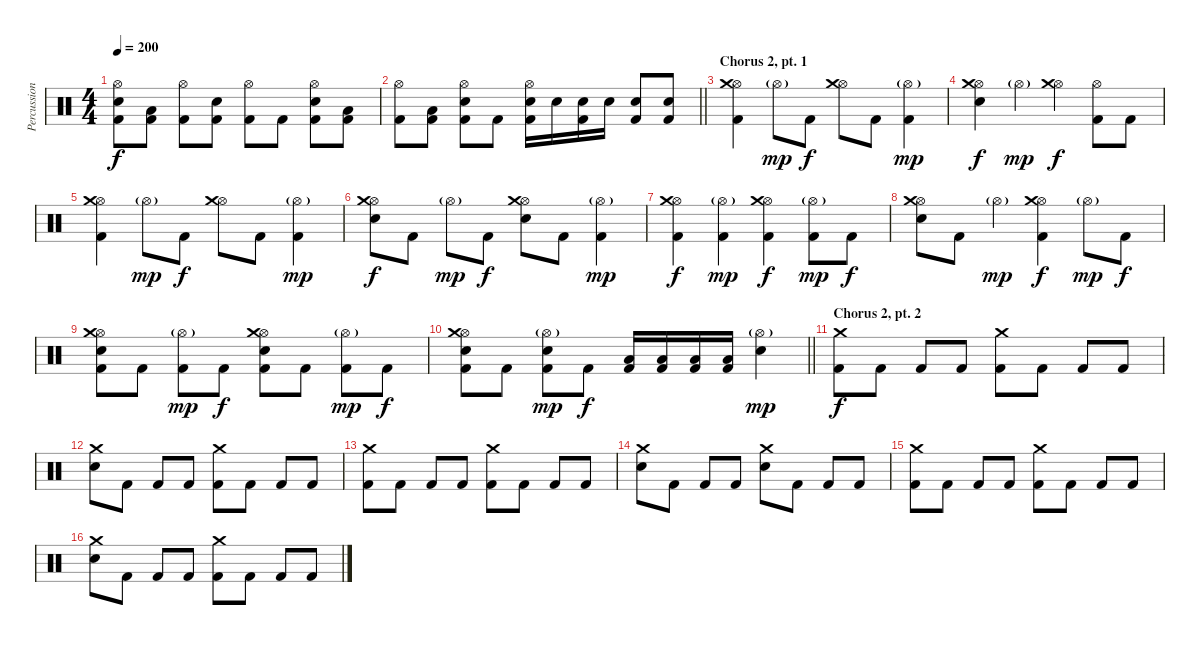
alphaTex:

\track ("Percussions" "Percussion") {instrument percussion}
\staff {score}
\articulation defaults
\ts (4 4)
\tempo 200
\clef neutral
\ks c
("Hi-Hat (open)" "Electric Snare (hit)" "Kick (hit) 2").8{dy f} ("Low Tom (hit)" "Kick (hit) 2").8 ("Hi-Hat (open)" "Kick (hit) 2").8 ("Electric Snare (hit)" "Kick (hit) 2").8 ("Hi-Hat (open)" "Kick (hit) 2").8 "Kick (hit) 2".8 ("Hi-Hat (open)" "Electric Snare (hit)" "Kick (hit) 2").8 ("Low Tom (hit)" "Kick (hit) 2").8 |
\barLineRight lightlight
("Hi-Hat (open)" "Kick (hit) 2").8 ("Low Tom (hit)" "Kick (hit) 2").8 ("Hi-Hat (open)" "Electric Snare (hit)" "Kick (hit) 2").8 "Kick (hit) 2".8 ("Hi-Hat (open)" "Electric Snare (hit)" "Kick (hit) 2").16 "Electric Snare (hit)".16 ("Electric Snare (hit)" "Kick (hit) 2").16 "Electric Snare (hit)".16 ("Electric Snare (hit)" "Kick (hit) 2").8 ("Electric Snare (hit)" "Kick (hit) 2").8 |
\section ("" "Chorus 2, pt. 1")
("Hi-Hat (open)" "Crash medium (hit)" "Kick (hit) 2").4 "Hi-Hat (open)"{g}.8{dy mp} "Kick (hit) 2".8{dy f} ("Hi-Hat (open)" "Crash medium (hit)").8 "Kick (hit) 2".8 ("Hi-Hat (open)"{g} "Kick (hit) 2").4{dy mp} |
("Hi-Hat (open)" "Crash medium (hit)" "Electric Snare (hit)").4{dy f} "Hi-Hat (open)"{g}.4{dy mp} ("Hi-Hat (open)" "Crash medium (hit)").4{dy f} ("Hi-Hat (open)" "Kick (hit) 2").8 "Kick (hit) 2".8 |
("Hi-Hat (open)" "Crash medium (hit)" "Kick (hit) 2").4 "Hi-Hat (open)"{g}.8{dy mp} "Kick (hit) 2".8{dy f} ("Hi-Hat (open)" "Crash medium (hit)").8 "Kick (hit) 2".8 ("Hi-Hat (open)"{g} "Kick (hit) 2").4{dy mp} |
("Hi-Hat (open)" "Crash medium (hit)" "Electric Snare (hit)").8{dy f} "Kick (hit) 2".8 "Hi-Hat (open)"{g}.8{dy mp} "Kick (hit) 2".8{dy f} ("Hi-Hat (open)" "Crash medium (hit)" "Electric Snare (hit)").8 "Kick (hit) 2".8 ("Hi-Hat (open)"{g} "Kick (hit) 2").4{dy mp} |
("Hi-Hat (open)" "Crash medium (hit)" "Kick (hit) 2").4{dy f} ("Hi-Hat (open)"{g} "Kick (hit) 2").4{dy mp} ("Hi-Hat (open)" "Crash medium (hit)" "Kick (hit) 2").4{dy f} ("Hi-Hat (open)"{g} "Kick (hit) 2").8{dy mp} "Kick (hit) 2".8{dy f} |
("Hi-Hat (open)" "Crash medium (hit)" "Electric Snare (hit)").8 "Kick (hit) 2".8 "Hi-Hat (open)"{g}.4{dy mp} ("Hi-Hat (open)" "Crash medium (hit)" "Kick (hit) 2").4{dy f} "Hi-Hat (open)"{g}.8{dy mp} "Kick (hit) 2".8{dy f} |
("Hi-Hat (open)" "Crash medium (hit)" "Electric Snare (hit)" "Kick (hit) 2").8 "Kick (hit) 2".8 ("Hi-Hat (open)"{g} "Kick (hit) 2").8{dy mp} "Kick (hit) 2".8{dy f} ("Hi-Hat (open)" "Crash medium (hit)" "Electric Snare (hit)" "Kick (hit) 2").8 "Kick (hit) 2".8 ("Hi-Hat (open)"{g} "Kick (hit) 2").8{dy mp} "Kick (hit) 2".8{dy f} |
\barLineRight lightlight
("Hi-Hat (open)" "Crash medium (hit)" "Electric Snare (hit)" "Kick (hit) 2").8 "Kick (hit) 2".8 ("Hi-Hat (open)"{g} "Electric Snare (hit)" "Kick (hit) 2").8{dy mp} "Kick (hit) 2".8{dy f} ("Low Tom (hit)" "Kick (hit) 2").16 ("Low Tom (hit)" "Kick (hit) 2").16 ("Low Tom (hit)" "Kick (hit) 2").16 ("Low Tom (hit)" "Kick (hit) 2").16 ("Hi-Hat (open)"{g} "Electric Snare (hit)").4{dy mp} |
\section ("" "Chorus 2, pt. 2")
("Crash medium (hit)" "Kick (hit) 2").8{dy f} "Kick (hit) 2".8 "Kick (hit) 2".8 "Kick (hit) 2".8 ("Crash medium (hit)" "Kick (hit) 2").8 "Kick (hit) 2".8 "Kick (hit) 2".8 "Kick (hit) 2".8 |
("Crash medium (hit)" "Electric Snare (hit)").8 "Kick (hit) 2".8 "Kick (hit) 2".8 "Kick (hit) 2".8 ("Crash medium (hit)" "Kick (hit) 2").8 "Kick (hit) 2".8 "Kick (hit) 2".8 "Kick (hit) 2".8 |
("Crash medium (hit)" "Kick (hit) 2").8 "Kick (hit) 2".8 "Kick (hit) 2".8 "Kick (hit) 2".8 ("Crash medium (hit)" "Kick (hit) 2").8 "Kick (hit) 2".8 "Kick (hit) 2".8 "Kick (hit) 2".8 |
("Crash medium (hit)" "Electric Snare (hit)").8 "Kick (hit) 2".8 "Kick (hit) 2".8 "Kick (hit) 2".8 ("Crash medium (hit)" "Electric Snare (hit)").8 "Kick (hit) 2".8 "Kick (hit) 2".8 "Kick (hit) 2".8 |
("Crash medium (hit)" "Kick (hit) 2").8 "Kick (hit) 2".8 "Kick (hit) 2".8 "Kick (hit) 2".8 ("Crash medium (hit)" "Kick (hit) 2").8 "Kick (hit) 2".8 "Kick (hit) 2".8 "Kick (hit) 2".8 |
("Crash medium (hit)" "Electric Snare (hit)").8 "Kick (hit) 2".8 "Kick (hit) 2".8 "Kick (hit) 2".8 ("Crash medium (hit)" "Kick (hit) 2").8 "Kick (hit) 2".8 "Kick (hit) 2".8 "Kick (hit) 2".8
